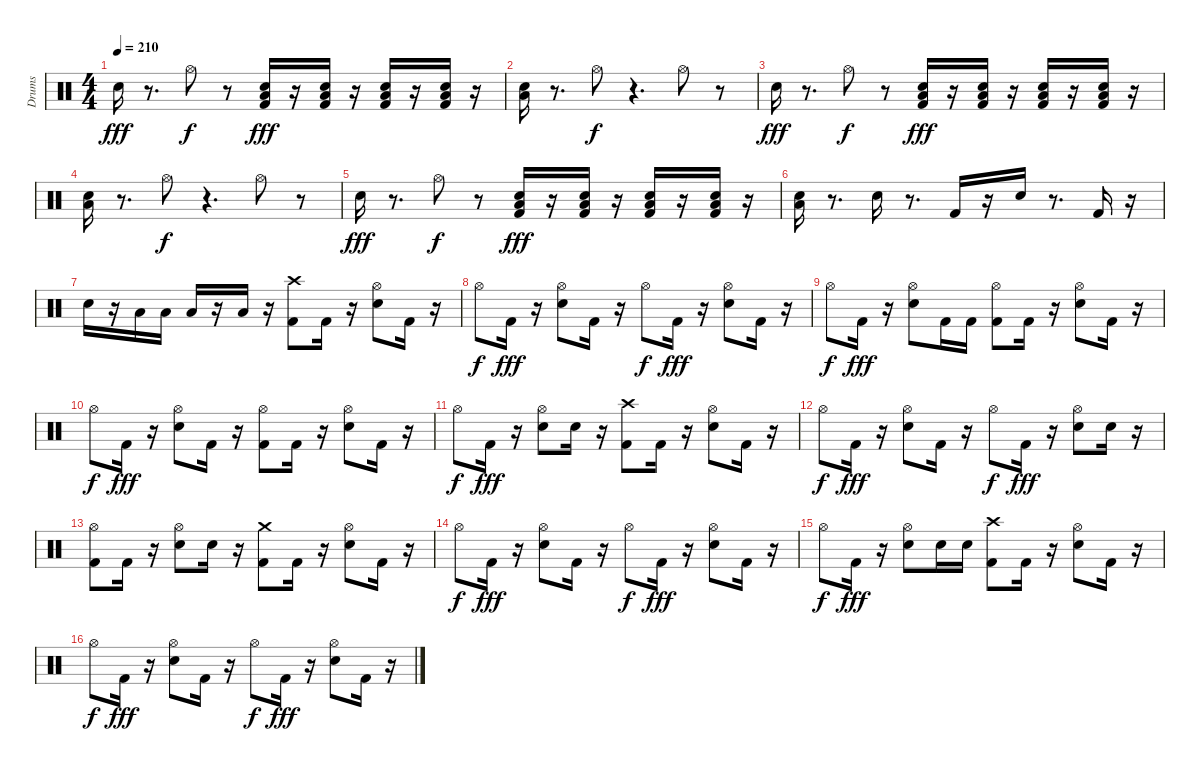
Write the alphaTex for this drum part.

\track ("Drums" "Drums") {instrument percussion}
\staff {score}
\articulation defaults
\ts (4 4)
\tempo 210
\clef neutral
\ks c "Electric Snare (hit)".16{dy fff}
r.8{d} "Hi-Hat (open)".8{dy f} r.8 ("Electric Snare (hit)" "Low Tom (hit)" "Kick (hit) 2").16{dy fff} r.16 ("Electric Snare (hit)" "Low Tom (hit)" "Kick (hit) 2").16 r.16 ("Electric Snare (hit)" "Low Tom (hit)" "Kick (hit) 2").16 r.16 ("Electric Snare (hit)" "Low Tom (hit)" "Kick (hit) 2").16 r.16 |
("Electric Snare (hit)" "Low Tom (hit)").16 r.8{d} "Hi-Hat (open)".8{dy f} r.4{d} "Hi-Hat (open)".8 r.8 |
"Electric Snare (hit)".16{dy fff} r.8{d} "Hi-Hat (open)".8{dy f} r.8 ("Electric Snare (hit)" "Low Tom (hit)" "Kick (hit) 2").16{dy fff} r.16 ("Electric Snare (hit)" "Low Tom (hit)" "Kick (hit) 2").16 r.16 ("Electric Snare (hit)" "Low Tom (hit)" "Kick (hit) 2").16 r.16 ("Electric Snare (hit)" "Low Tom (hit)" "Kick (hit) 2").16 r.16 |
("Electric Snare (hit)" "Low Tom (hit)").16 r.8{d} "Hi-Hat (open)".8{dy f} r.4{d} "Hi-Hat (open)".8 r.8 |
"Electric Snare (hit)".16{dy fff} r.8{d} "Hi-Hat (open)".8{dy f} r.8 ("Electric Snare (hit)" "Low Tom (hit)" "Kick (hit) 2").16{dy fff} r.16 ("Electric Snare (hit)" "Low Tom (hit)" "Kick (hit) 2").16 r.16 ("Electric Snare (hit)" "Low Tom (hit)" "Kick (hit) 2").16 r.16 ("Electric Snare (hit)" "Low Tom (hit)" "Kick (hit) 2").16 r.16 |
("Electric Snare (hit)" "Low Tom (hit)").16 r.8{d} "Electric Snare (hit)".16 r.8{d} "Kick (hit) 2".16 r.16 "Electric Snare (hit)".16 r.8{d} "Kick (hit) 2".16 r.16 |
"Electric Snare (hit)".16 r.16 "Low Tom (hit)".16 "Low Tom (hit)".16 "Low Tom (hit)".16 r.16 "Low Tom (hit)".16 r.16 ("Kick (hit) 2" "Crash high (hit)").8 "Kick (hit) 2".16 r.16 ("Electric Snare (hit)" "Hi-Hat (open)").8 "Kick (hit) 2".16 r.16 |
"Hi-Hat (open)".8{dy f} "Kick (hit) 2".16{dy fff} r.16 ("Electric Snare (hit)" "Hi-Hat (open)").8 "Kick (hit) 2".16 r.16 "Hi-Hat (open)".8{dy f} "Kick (hit) 2".16{dy fff} r.16 ("Electric Snare (hit)" "Hi-Hat (open)").8 "Kick (hit) 2".16 r.16 |
"Hi-Hat (open)".8{dy f} "Kick (hit) 2".16{dy fff} r.16 ("Electric Snare (hit)" "Hi-Hat (open)").8 "Kick (hit) 2".16 "Kick (hit) 2".16 ("Kick (hit) 2" "Hi-Hat (open)").8 "Kick (hit) 2".16 r.16 ("Electric Snare (hit)" "Hi-Hat (open)").8 "Kick (hit) 2".16 r.16 |
"Hi-Hat (open)".8{dy f} "Kick (hit) 2".16{dy fff} r.16 ("Electric Snare (hit)" "Hi-Hat (open)").8 "Kick (hit) 2".16 r.16 ("Kick (hit) 2" "Hi-Hat (open)").8 "Kick (hit) 2".16 r.16 ("Electric Snare (hit)" "Hi-Hat (open)").8 "Kick (hit) 2".16 r.16 |
"Hi-Hat (open)".8{dy f} "Kick (hit) 2".16{dy fff} r.16 ("Electric Snare (hit)" "Hi-Hat (open)").8 "Electric Snare (hit)".16 r.16 ("Kick (hit) 2" "Crash high (hit)").8 "Kick (hit) 2".16 r.16 ("Electric Snare (hit)" "Hi-Hat (open)").8 "Kick (hit) 2".16 r.16 |
"Hi-Hat (open)".8{dy f} "Kick (hit) 2".16{dy fff} r.16 ("Electric Snare (hit)" "Hi-Hat (open)").8 "Kick (hit) 2".16 r.16 "Hi-Hat (open)".8{dy f} "Kick (hit) 2".16{dy fff} r.16 ("Electric Snare (hit)" "Hi-Hat (open)").8 "Electric Snare (hit)".16 r.16 |
("Hi-Hat (open)" "Kick (hit) 2").8 "Kick (hit) 2".16 r.16 ("Electric Snare (hit)" "Hi-Hat (open)").8 "Electric Snare (hit)".16 r.16 ("Kick (hit) 2" "Crash medium (hit)").8 "Kick (hit) 2".16 r.16 ("Electric Snare (hit)" "Hi-Hat (open)").8 "Kick (hit) 2".16 r.16 |
"Hi-Hat (open)".8{dy f} "Kick (hit) 2".16{dy fff} r.16 ("Electric Snare (hit)" "Hi-Hat (open)").8 "Kick (hit) 2".16 r.16 "Hi-Hat (open)".8{dy f} "Kick (hit) 2".16{dy fff} r.16 ("Electric Snare (hit)" "Hi-Hat (open)").8 "Kick (hit) 2".16 r.16 |
"Hi-Hat (open)".8{dy f} "Kick (hit) 2".16{dy fff} r.16 ("Electric Snare (hit)" "Hi-Hat (open)").8 "Electric Snare (hit)".16 "Electric Snare (hit)".16 ("Kick (hit) 2" "Crash high (hit)").8 "Kick (hit) 2".16 r.16 ("Electric Snare (hit)" "Hi-Hat (open)").8 "Kick (hit) 2".16 r.16 |
"Hi-Hat (open)".8{dy f} "Kick (hit) 2".16{dy fff} r.16 ("Electric Snare (hit)" "Hi-Hat (open)").8 "Kick (hit) 2".16 r.16 "Hi-Hat (open)".8{dy f} "Kick (hit) 2".16{dy fff} r.16 ("Electric Snare (hit)" "Hi-Hat (open)").8 "Kick (hit) 2".16 r.16
